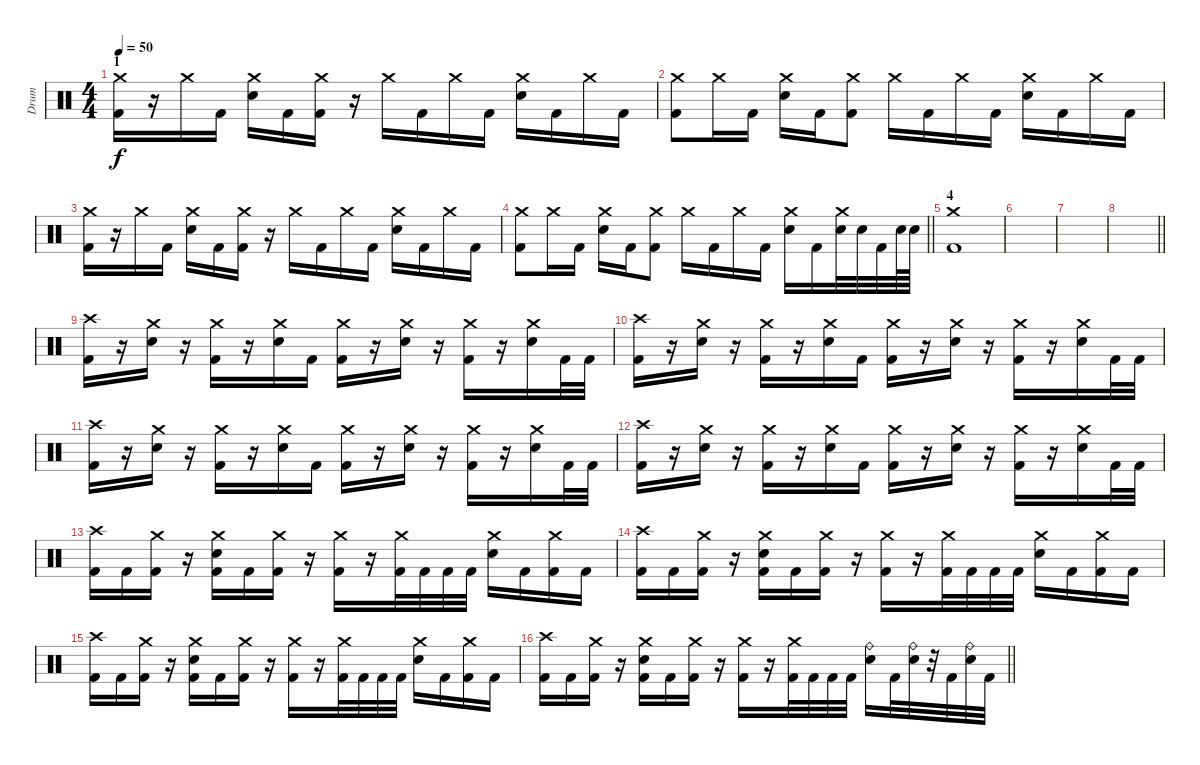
\track ("Drum " "Drum ") {instrument percussion}
\staff {score}
\articulation defaults
\ts (4 4)
\section ("" "1")
\tempo 50
\clef neutral
\ks c
("Crash medium (hit)" "Kick (hit) 2").16{dy f} r.16 "Crash medium (hit)".16 "Kick (hit) 2".16 ("Crash medium (hit)" "Snare (hit) 2").16 "Kick (hit) 2".16 ("Crash medium (hit)" "Kick (hit) 2").16 r.16 "Crash medium (hit)".16 "Kick (hit) 2".16 "Crash medium (hit)".16 "Kick (hit) 2".16 ("Crash medium (hit)" "Snare (hit) 2").16 "Kick (hit) 2".16 "Crash medium (hit)".16 "Kick (hit) 2".16 |
("Crash medium (hit)" "Kick (hit) 2").8 "Crash medium (hit)".16 "Kick (hit) 2".16 ("Crash medium (hit)" "Snare (hit) 2").16 "Kick (hit) 2".16 ("Crash medium (hit)" "Kick (hit) 2").8 "Crash medium (hit)".16 "Kick (hit) 2".16 "Crash medium (hit)".16 "Kick (hit) 2".16 ("Crash medium (hit)" "Snare (hit) 2").16 "Kick (hit) 2".16 "Crash medium (hit)".16 "Kick (hit) 2".16 |
("Crash medium (hit)" "Kick (hit) 2").16 r.16 "Crash medium (hit)".16 "Kick (hit) 2".16 ("Crash medium (hit)" "Snare (hit) 2").16 "Kick (hit) 2".16 ("Crash medium (hit)" "Kick (hit) 2").16 r.16 "Crash medium (hit)".16 "Kick (hit) 2".16 "Crash medium (hit)".16 "Kick (hit) 2".16 ("Crash medium (hit)" "Snare (hit) 2").16 "Kick (hit) 2".16 "Crash medium (hit)".16 "Kick (hit) 2".16 |
\barLineRight lightlight
("Crash medium (hit)" "Kick (hit) 2").8 "Crash medium (hit)".16 "Kick (hit) 2".16 ("Crash medium (hit)" "Snare (hit) 2").16 "Kick (hit) 2".16 ("Crash medium (hit)" "Kick (hit) 2").8 "Crash medium (hit)".16 "Kick (hit) 2".16 "Crash medium (hit)".16 "Kick (hit) 2".16 ("Crash medium (hit)" "Snare (hit) 2").16 "Kick (hit) 2".16 ("Crash medium (hit)" "Snare (hit) 2").32 "Snare (hit) 2".32 "Kick (hit) 2".32 "Snare (hit) 2".64 "Snare (hit) 2".64 |
\section ("" "4")
("Crash medium (hit)" "Kick (hit) 2").1 |
|
|
\barLineRight lightlight
|
("Crash high (hit)" "Kick (hit) 2").16 r.16 ("Crash medium (hit)" "Electric Snare (hit)").16 r.16 ("Crash medium (hit)" "Kick (hit) 2").16 r.16 ("Crash medium (hit)" "Electric Snare (hit)").16 "Kick (hit) 2".16 ("Crash medium (hit)" "Kick (hit) 2").16 r.16 ("Crash medium (hit)" "Electric Snare (hit)").16 r.16 ("Crash medium (hit)" "Kick (hit) 2").16 r.16 ("Crash medium (hit)" "Electric Snare (hit)").16 "Kick (hit) 2".32 "Kick (hit) 2".32 |
("Crash high (hit)" "Kick (hit) 2").16 r.16 ("Crash medium (hit)" "Electric Snare (hit)").16 r.16 ("Crash medium (hit)" "Kick (hit) 2").16 r.16 ("Crash medium (hit)" "Electric Snare (hit)").16 "Kick (hit) 2".16 ("Crash medium (hit)" "Kick (hit) 2").16 r.16 ("Crash medium (hit)" "Electric Snare (hit)").16 r.16 ("Crash medium (hit)" "Kick (hit) 2").16 r.16 ("Crash medium (hit)" "Electric Snare (hit)").16 "Kick (hit) 2".32 "Kick (hit) 2".32 |
("Crash high (hit)" "Kick (hit) 2").16 r.16 ("Crash medium (hit)" "Electric Snare (hit)").16 r.16 ("Crash medium (hit)" "Kick (hit) 2").16 r.16 ("Crash medium (hit)" "Electric Snare (hit)").16 "Kick (hit) 2".16 ("Crash medium (hit)" "Kick (hit) 2").16 r.16 ("Crash medium (hit)" "Electric Snare (hit)").16 r.16 ("Crash medium (hit)" "Kick (hit) 2").16 r.16 ("Crash medium (hit)" "Electric Snare (hit)").16 "Kick (hit) 2".32 "Kick (hit) 2".32 |
("Crash high (hit)" "Kick (hit) 2").16 r.16 ("Crash medium (hit)" "Electric Snare (hit)").16 r.16 ("Crash medium (hit)" "Kick (hit) 2").16 r.16 ("Crash medium (hit)" "Electric Snare (hit)").16 "Kick (hit) 2".16 ("Crash medium (hit)" "Kick (hit) 2").16 r.16 ("Crash medium (hit)" "Electric Snare (hit)").16 r.16 ("Crash medium (hit)" "Kick (hit) 2").16 r.16 ("Crash medium (hit)" "Electric Snare (hit)").16 "Kick (hit) 2".32 "Kick (hit) 2".32 |
("Crash high (hit)" "Kick (hit) 2").16 "Kick (hit) 2".16 ("Crash medium (hit)" "Kick (hit) 2").16 r.16 ("Crash medium (hit)" "Snare (hit) 2" "Kick (hit) 2").16 "Kick (hit) 2".16 ("Crash medium (hit)" "Kick (hit) 2").16 r.16 ("Crash medium (hit)" "Kick (hit) 2").16 r.16 ("Crash medium (hit)" "Kick (hit) 2").32 "Kick (hit) 2".32 "Kick (hit) 2".32 "Kick (hit) 2".32 ("Crash medium (hit)" "Snare (hit) 2").16 "Kick (hit) 2".16 ("Crash medium (hit)" "Kick (hit) 2").16 "Kick (hit) 2".16 |
("Crash high (hit)" "Kick (hit) 2").16 "Kick (hit) 2".16 ("Crash medium (hit)" "Kick (hit) 2").16 r.16 ("Crash medium (hit)" "Snare (hit) 2" "Kick (hit) 2").16 "Kick (hit) 2".16 ("Crash medium (hit)" "Kick (hit) 2").16 r.16 ("Crash medium (hit)" "Kick (hit) 2").16 r.16 ("Crash medium (hit)" "Kick (hit) 2").32 "Kick (hit) 2".32 "Kick (hit) 2".32 "Kick (hit) 2".32 ("Crash medium (hit)" "Snare (hit) 2").16 "Kick (hit) 2".16 ("Crash medium (hit)" "Kick (hit) 2").16 "Kick (hit) 2".16 |
("Crash high (hit)" "Kick (hit) 2").16 "Kick (hit) 2".16 ("Crash medium (hit)" "Kick (hit) 2").16 r.16 ("Crash medium (hit)" "Snare (hit) 2" "Kick (hit) 2").16 "Kick (hit) 2".16 ("Crash medium (hit)" "Kick (hit) 2").16 r.16 ("Crash medium (hit)" "Kick (hit) 2").16 r.16 ("Crash medium (hit)" "Kick (hit) 2").32 "Kick (hit) 2".32 "Kick (hit) 2".32 "Kick (hit) 2".32 ("Crash medium (hit)" "Snare (hit) 2").16 "Kick (hit) 2".16 ("Crash medium (hit)" "Kick (hit) 2").16 "Kick (hit) 2".16 |
\barLineRight lightlight
("Crash high (hit)" "Kick (hit) 2").16 "Kick (hit) 2".16 ("Crash medium (hit)" "Kick (hit) 2").16 r.16 ("Crash medium (hit)" "Snare (hit) 2" "Kick (hit) 2").16 "Kick (hit) 2".16 ("Crash medium (hit)" "Kick (hit) 2").16 r.16 ("Crash medium (hit)" "Kick (hit) 2").16 r.16 ("Crash medium (hit)" "Kick (hit) 2").32 "Kick (hit) 2".32 "Kick (hit) 2".32 "Kick (hit) 2".32 ("Ride (bell)" "Snare (hit) 2").16 "Kick (hit) 2".32 ("Ride (bell)" "Snare (hit) 2").32 r.32 "Kick (hit) 2".32 ("Ride (bell)" "Snare (hit) 2").32 "Kick (hit) 2".32
